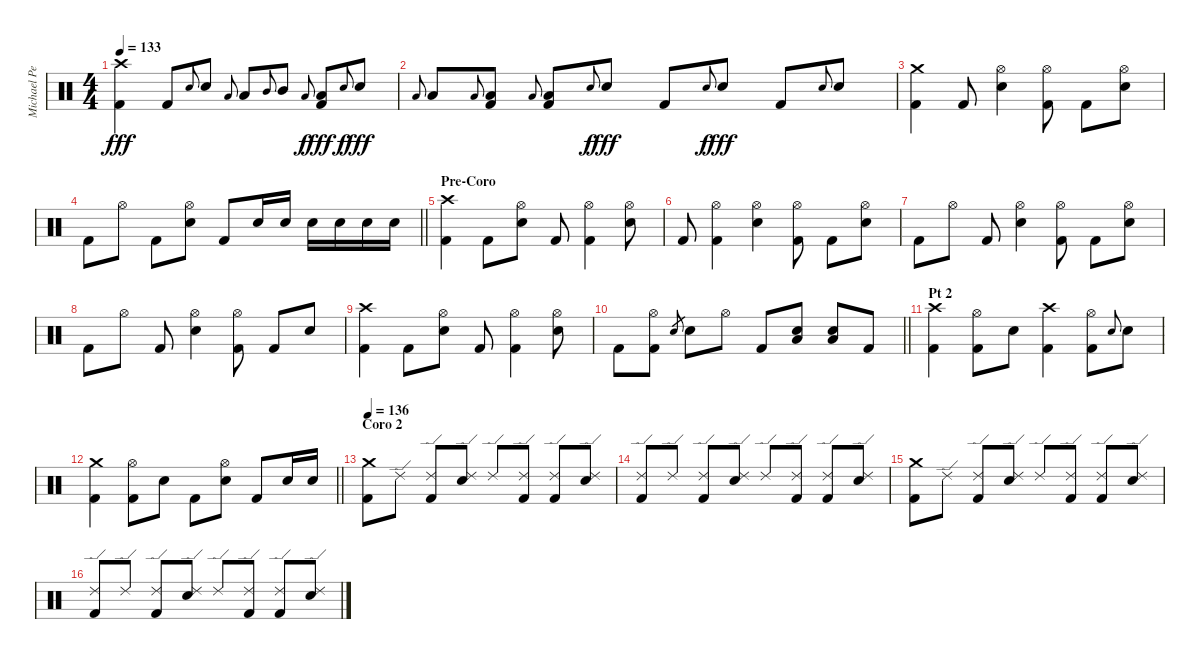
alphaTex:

\track ("Michael Pedicone [Drums]" "Michael Pe") {instrument percussion}
\staff
\articulation defaults
\ts (4 4)
\tempo 133
\clef neutral
\ks c
("Crash high (hit)" "Kick (hit) 2").4{dy fff} "Kick (hit) 2".8 "Electric Snare (hit)".8{gr onbeat} "Electric Snare (hit)".8 "Low Tom (hit)".8{gr onbeat} "Low Tom (hit)".8 "Mid Tom (hit)".8{gr onbeat} "Mid Tom (hit)".8 "Low Floor Tom (hit)".8{gr onbeat dy f} ("Low Floor Tom (hit)" "Kick (hit) 2").8{dy fff} "Electric Snare (hit)".8{gr onbeat dy f} "Electric Snare (hit)".8{dy fff} |
"Low Tom (hit)".8{gr onbeat} "Low Tom (hit)".8 "Low Floor Tom (hit)".8{gr onbeat} ("Low Floor Tom (hit)" "Kick (hit) 2").8 "Low Floor Tom (hit)".8{gr onbeat} ("Low Floor Tom (hit)" "Kick (hit) 2").8 "Electric Snare (hit)".8{gr onbeat dy f} "Electric Snare (hit)".8{dy fff} "Kick (hit) 2".8 "Electric Snare (hit)".8{gr onbeat dy f} "Electric Snare (hit)".8{dy fff} "Kick (hit) 2".8 "Electric Snare (hit)".8{gr onbeat} "Electric Snare (hit)".8 |
("Crash medium (hit)" "Kick (hit) 2").4 "Kick (hit) 2".8 ("Hi-Hat (open)" "Electric Snare (hit)").4 ("Hi-Hat (open)" "Kick (hit) 2").8 "Kick (hit) 2".8 ("Hi-Hat (open)" "Electric Snare (hit)").8 |
\barLineRight lightlight "Kick (hit) 2".8 "Hi-Hat (open)".8 "Kick (hit) 2".8
("Hi-Hat (open)" "Electric Snare (hit)").8 "Kick (hit) 2".8 "Electric Snare (hit)".16 "Electric Snare (hit)".16 "Electric Snare (hit)".16 "Electric Snare (hit)".16 "Electric Snare (hit)".16 "Electric Snare (hit)".16 |
\section ("" "Pre-Coro")
("Crash high (hit)" "Kick (hit) 2").4 "Kick (hit) 2".8 ("Hi-Hat (open)" "Electric Snare (hit)").8 "Kick (hit) 2".8 ("Hi-Hat (open)" "Kick (hit) 2").4 ("Hi-Hat (open)" "Electric Snare (hit)").8 |
"Kick (hit) 2".8 ("Hi-Hat (open)" "Kick (hit) 2").4 ("Hi-Hat (open)" "Electric Snare (hit)").4 ("Hi-Hat (open)" "Kick (hit) 2").8 "Kick (hit) 2".8 ("Hi-Hat (open)" "Electric Snare (hit)").8 |
"Kick (hit) 2".8 "Hi-Hat (open)".8 "Kick (hit) 2".8 ("Hi-Hat (open)" "Electric Snare (hit)").4 ("Hi-Hat (open)" "Kick (hit) 2").8 "Kick (hit) 2".8 ("Hi-Hat (open)" "Electric Snare (hit)").8 |
"Kick (hit) 2".8 "Hi-Hat (open)".8 "Kick (hit) 2".8 ("Hi-Hat (open)" "Electric Snare (hit)").4 ("Hi-Hat (open)" "Kick (hit) 2").8 "Kick (hit) 2".8 "Electric Snare (hit)".8 |
("Crash high (hit)" "Kick (hit) 2").4 "Kick (hit) 2".8 ("Hi-Hat (open)" "Electric Snare (hit)").8 "Kick (hit) 2".8 ("Hi-Hat (open)" "Kick (hit) 2").4 ("Hi-Hat (open)" "Electric Snare (hit)").8 |
\barLineRight lightlight "Kick (hit) 2".8
("Hi-Hat (open)" "Kick (hit) 2").8 "Electric Snare (hit)".8{gr} "Electric Snare (hit)".8 "Hi-Hat (open)".8 "Kick (hit) 2".8 ("Low Floor Tom (hit)" "Electric Snare (hit)").8 ("Low Floor Tom (hit)" "Electric Snare (hit)").8 "Kick (hit) 2".8 |
\section ("" "Pt 2")
("Crash high (hit)" "Kick (hit) 2").4 ("Hi-Hat (open)" "Kick (hit) 2").8 "Electric Snare (hit)".8 ("Crash high (hit)" "Kick (hit) 2").4 ("Hi-Hat (open)" "Kick (hit) 2").8 "Electric Snare (hit)".8{gr onbeat} "Electric Snare (hit)".8 |
\barLineRight lightlight
("Crash medium (hit)" "Kick (hit) 2").4 ("Hi-Hat (open)" "Kick (hit) 2").8 "Electric Snare (hit)".8 "Kick (hit) 2".8 ("Hi-Hat (open)" "Electric Snare (hit)").8 "Kick (hit) 2".8 "Electric Snare (hit)".16 "Electric Snare (hit)".16 |
\section ("" "Coro 2")
\tempo 136
("Crash medium (hit)" "Kick (hit) 2").8 "Ride (edge) 2".8 ("Ride (edge) 2" "Kick (hit) 2").8 ("Ride (edge) 2" "Electric Snare (hit)").8 "Ride (edge) 2".8 ("Ride (edge) 2" "Kick (hit) 2").8 ("Ride (edge) 2" "Kick (hit) 2").8 ("Ride (edge) 2" "Electric Snare (hit)").8 |
("Ride (edge) 2" "Kick (hit) 2").8 "Ride (edge) 2".8 ("Ride (edge) 2" "Kick (hit) 2").8 ("Ride (edge) 2" "Electric Snare (hit)").8 "Ride (edge) 2".8 ("Ride (edge) 2" "Kick (hit) 2").8 ("Ride (edge) 2" "Kick (hit) 2").8 ("Ride (edge) 2" "Electric Snare (hit)").8 |
("Crash medium (hit)" "Kick (hit) 2").8 "Ride (edge) 2".8 ("Ride (edge) 2" "Kick (hit) 2").8 ("Ride (edge) 2" "Electric Snare (hit)").8 "Ride (edge) 2".8 ("Ride (edge) 2" "Kick (hit) 2").8 ("Ride (edge) 2" "Kick (hit) 2").8 ("Ride (edge) 2" "Electric Snare (hit)").8 |
("Ride (edge) 2" "Kick (hit) 2").8 "Ride (edge) 2".8 ("Ride (edge) 2" "Kick (hit) 2").8 ("Ride (edge) 2" "Electric Snare (hit)").8 "Ride (edge) 2".8 ("Ride (edge) 2" "Kick (hit) 2").8 ("Ride (edge) 2" "Kick (hit) 2").8 ("Ride (edge) 2" "Electric Snare (hit)").8
